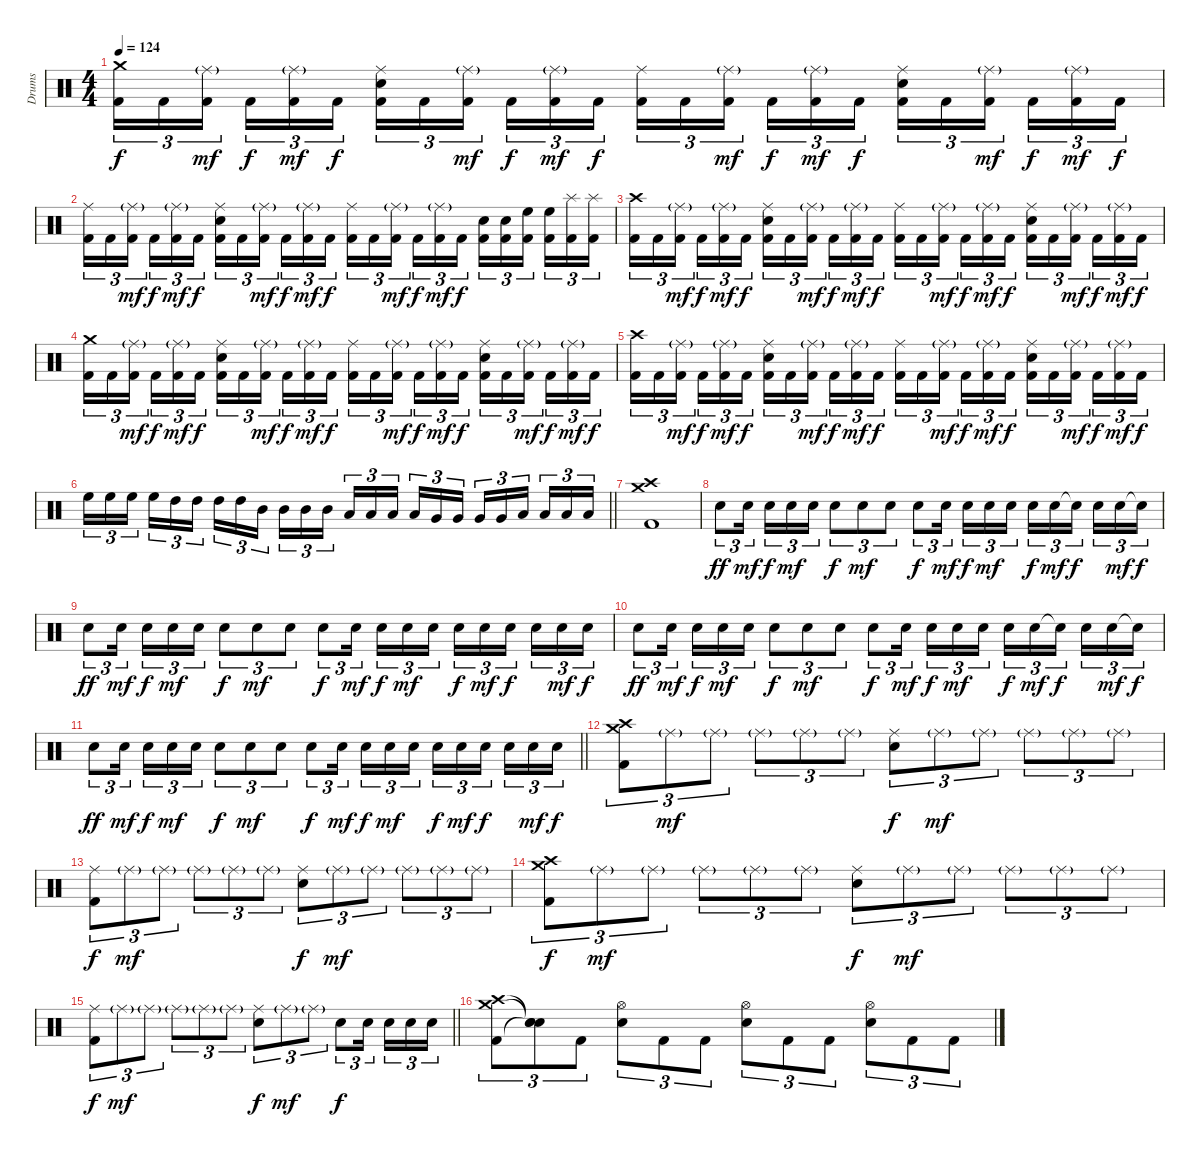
\track ("Drums" "Drums") {instrument percussion}
\staff {score}
\articulation defaults
\ts (4 4)
\tempo 124
\clef neutral
\ks c
("Crash medium (hit)" "Kick (hit) 2").16{tu (3 2) dy f} "Kick (hit) 2".16{tu (3 2)} ("Ride (middle)"{g} "Kick (hit) 2").16{tu (3 2) dy mf} "Kick (hit) 2".16{tu (3 2) dy f} ("Ride (middle)"{g} "Kick (hit) 2").16{tu (3 2) dy mf} "Kick (hit) 2".16{tu (3 2) dy f} ("Ride (middle)" "Electric Snare (hit)" "Kick (hit) 2").16{tu (3 2)} "Kick (hit) 2".16{tu (3 2)} ("Ride (middle)"{g} "Kick (hit) 2").16{tu (3 2) dy mf} "Kick (hit) 2".16{tu (3 2) dy f} ("Ride (middle)"{g} "Kick (hit) 2").16{tu (3 2) dy mf} "Kick (hit) 2".16{tu (3 2) dy f} ("Ride (middle)" "Kick (hit) 2").16{tu (3 2)} "Kick (hit) 2".16{tu (3 2)} ("Ride (middle)"{g} "Kick (hit) 2").16{tu (3 2) dy mf} "Kick (hit) 2".16{tu (3 2) dy f} ("Ride (middle)"{g} "Kick (hit) 2").16{tu (3 2) dy mf} "Kick (hit) 2".16{tu (3 2) dy f} ("Ride (middle)" "Electric Snare (hit)" "Kick (hit) 2").16{tu (3 2)} "Kick (hit) 2".16{tu (3 2)} ("Ride (middle)"{g} "Kick (hit) 2").16{tu (3 2) dy mf} "Kick (hit) 2".16{tu (3 2) dy f} ("Ride (middle)"{g} "Kick (hit) 2").16{tu (3 2) dy mf} "Kick (hit) 2".16{tu (3 2) dy f} |
("Ride (middle)" "Kick (hit) 2").16{tu (3 2)} "Kick (hit) 2".16{tu (3 2)} ("Ride (middle)"{g} "Kick (hit) 2").16{tu (3 2) dy mf} "Kick (hit) 2".16{tu (3 2) dy f} ("Ride (middle)"{g} "Kick (hit) 2").16{tu (3 2) dy mf} "Kick (hit) 2".16{tu (3 2) dy f} ("Ride (middle)" "Electric Snare (hit)" "Kick (hit) 2").16{tu (3 2)} "Kick (hit) 2".16{tu (3 2)} ("Ride (middle)"{g} "Kick (hit) 2").16{tu (3 2) dy mf} "Kick (hit) 2".16{tu (3 2) dy f} ("Ride (middle)"{g} "Kick (hit) 2").16{tu (3 2) dy mf} "Kick (hit) 2".16{tu (3 2) dy f} ("Ride (middle)" "Kick (hit) 2").16{tu (3 2)} "Kick (hit) 2".16{tu (3 2)} ("Ride (middle)"{g} "Kick (hit) 2").16{tu (3 2) dy mf} "Kick (hit) 2".16{tu (3 2) dy f} ("Ride (middle)"{g} "Kick (hit) 2").16{tu (3 2) dy mf} "Kick (hit) 2".16{tu (3 2) dy f} ("Electric Snare (hit)" "Kick (hit) 2").16{tu (3 2)} ("Electric Snare (hit)" "Kick (hit) 2").16{tu (3 2)} ("High Floor Tom (hit)" "Kick (hit) 2").16{tu (3 2)} ("High Floor Tom (hit)" "Kick (hit) 2").16{tu (3 2)} ("Splash (hit)" "Kick (hit) 2").16{tu (3 2)} ("Splash (hit)" "Kick (hit) 2").16{tu (3 2)} |
("Crash high (hit)" "Kick (hit) 2").16{tu (3 2)} "Kick (hit) 2".16{tu (3 2)} ("Ride (middle)"{g} "Kick (hit) 2").16{tu (3 2) dy mf} "Kick (hit) 2".16{tu (3 2) dy f} ("Ride (middle)"{g} "Kick (hit) 2").16{tu (3 2) dy mf} "Kick (hit) 2".16{tu (3 2) dy f} ("Ride (middle)" "Electric Snare (hit)" "Kick (hit) 2").16{tu (3 2)} "Kick (hit) 2".16{tu (3 2)} ("Ride (middle)"{g} "Kick (hit) 2").16{tu (3 2) dy mf} "Kick (hit) 2".16{tu (3 2) dy f} ("Ride (middle)"{g} "Kick (hit) 2").16{tu (3 2) dy mf} "Kick (hit) 2".16{tu (3 2) dy f} ("Ride (middle)" "Kick (hit) 2").16{tu (3 2)} "Kick (hit) 2".16{tu (3 2)} ("Ride (middle)"{g} "Kick (hit) 2").16{tu (3 2) dy mf} "Kick (hit) 2".16{tu (3 2) dy f} ("Ride (middle)"{g} "Kick (hit) 2").16{tu (3 2) dy mf} "Kick (hit) 2".16{tu (3 2) dy f} ("Ride (middle)" "Electric Snare (hit)" "Kick (hit) 2").16{tu (3 2)} "Kick (hit) 2".16{tu (3 2)} ("Ride (middle)"{g} "Kick (hit) 2").16{tu (3 2) dy mf} "Kick (hit) 2".16{tu (3 2) dy f} ("Ride (middle)"{g} "Kick (hit) 2").16{tu (3 2) dy mf} "Kick (hit) 2".16{tu (3 2) dy f} |
("Crash medium (hit)" "Kick (hit) 2").16{tu (3 2)} "Kick (hit) 2".16{tu (3 2)} ("Ride (middle)"{g} "Kick (hit) 2").16{tu (3 2) dy mf} "Kick (hit) 2".16{tu (3 2) dy f} ("Ride (middle)"{g} "Kick (hit) 2").16{tu (3 2) dy mf} "Kick (hit) 2".16{tu (3 2) dy f} ("Ride (middle)" "Electric Snare (hit)" "Kick (hit) 2").16{tu (3 2)} "Kick (hit) 2".16{tu (3 2)} ("Ride (middle)"{g} "Kick (hit) 2").16{tu (3 2) dy mf} "Kick (hit) 2".16{tu (3 2) dy f} ("Ride (middle)"{g} "Kick (hit) 2").16{tu (3 2) dy mf} "Kick (hit) 2".16{tu (3 2) dy f} ("Ride (middle)" "Kick (hit) 2").16{tu (3 2)} "Kick (hit) 2".16{tu (3 2)} ("Ride (middle)"{g} "Kick (hit) 2").16{tu (3 2) dy mf} "Kick (hit) 2".16{tu (3 2) dy f} ("Ride (middle)"{g} "Kick (hit) 2").16{tu (3 2) dy mf} "Kick (hit) 2".16{tu (3 2) dy f} ("Ride (middle)" "Electric Snare (hit)" "Kick (hit) 2").16{tu (3 2)} "Kick (hit) 2".16{tu (3 2)} ("Ride (middle)"{g} "Kick (hit) 2").16{tu (3 2) dy mf} "Kick (hit) 2".16{tu (3 2) dy f} ("Ride (middle)"{g} "Kick (hit) 2").16{tu (3 2) dy mf} "Kick (hit) 2".16{tu (3 2) dy f} |
("Crash high (hit)" "Kick (hit) 2").16{tu (3 2)} "Kick (hit) 2".16{tu (3 2)} ("Ride (middle)"{g} "Kick (hit) 2").16{tu (3 2) dy mf} "Kick (hit) 2".16{tu (3 2) dy f} ("Ride (middle)"{g} "Kick (hit) 2").16{tu (3 2) dy mf} "Kick (hit) 2".16{tu (3 2) dy f} ("Ride (middle)" "Electric Snare (hit)" "Kick (hit) 2").16{tu (3 2)} "Kick (hit) 2".16{tu (3 2)} ("Ride (middle)"{g} "Kick (hit) 2").16{tu (3 2) dy mf} "Kick (hit) 2".16{tu (3 2) dy f} ("Ride (middle)"{g} "Kick (hit) 2").16{tu (3 2) dy mf} "Kick (hit) 2".16{tu (3 2) dy f} ("Ride (middle)" "Kick (hit) 2").16{tu (3 2)} "Kick (hit) 2".16{tu (3 2)} ("Ride (middle)"{g} "Kick (hit) 2").16{tu (3 2) dy mf} "Kick (hit) 2".16{tu (3 2) dy f} ("Ride (middle)"{g} "Kick (hit) 2").16{tu (3 2) dy mf} "Kick (hit) 2".16{tu (3 2) dy f} ("Ride (middle)" "Electric Snare (hit)" "Kick (hit) 2").16{tu (3 2)} "Kick (hit) 2".16{tu (3 2)} ("Ride (middle)"{g} "Kick (hit) 2").16{tu (3 2) dy mf} "Kick (hit) 2".16{tu (3 2) dy f} ("Ride (middle)"{g} "Kick (hit) 2").16{tu (3 2) dy mf} "Kick (hit) 2".16{tu (3 2) dy f} |
\barLineRight lightlight "High Floor Tom (hit)".16{tu (3 2)} "High Floor Tom (hit)".16{tu (3 2)} "High Floor Tom (hit)".16{tu (3 2)} "High Floor Tom (hit)".16{tu (3 2)} "High Tom (hit)".16{tu (3 2)} "High Tom (hit)".16{tu (3 2)} "High Tom (hit)".16{tu (3 2)} "High Tom (hit)".16{tu (3 2)} "Mid Tom (hit)".16{tu (3 2)} "Mid Tom (hit)".16{tu (3 2)} "Mid Tom (hit)".16{tu (3 2)} "Mid Tom (hit)".16{tu (3 2)} "Low Tom (hit)".16{tu (3 2)} "Low Tom (hit)".16{tu (3 2)} "Low Tom (hit)".16{tu (3 2)} "Low Tom (hit)".16{tu (3 2)} "Very Low Tom (hit)".16{tu (3 2)} "Very Low Tom (hit)".16{tu (3 2)} "Very Low Tom (hit)".16{tu (3 2)} "Very Low Tom (hit)".16{tu (3 2)} "Low Floor Tom (hit)".16{tu (3 2)} "Low Floor Tom (hit)".16{tu (3 2)} "Low Floor Tom (hit)".16{tu (3 2)} "Low Floor Tom (hit)".16{tu (3 2)}
|
("Crash high (hit)" "Crash medium (hit)" "Kick (hit) 2").1 |
"Electric Snare (hit)".8{tu (3 2) dy ff} "Electric Snare (hit)".16{tu (3 2) dy mf} "Electric Snare (hit)".16{tu (3 2) dy f} "Electric Snare (hit)".16{tu (3 2) dy mf} "Electric Snare (hit)".16{tu (3 2)} "Electric Snare (hit)".8{tu (3 2) dy f} "Electric Snare (hit)".8{tu (3 2) dy mf} "Electric Snare (hit)".8{tu (3 2)} "Electric Snare (hit)".8{tu (3 2) dy f} "Electric Snare (hit)".16{tu (3 2) dy mf} "Electric Snare (hit)".16{tu (3 2) dy f} "Electric Snare (hit)".16{tu (3 2) dy mf} "Electric Snare (hit)".16{tu (3 2)} "Electric Snare (hit)".16{tu (3 2) dy f} "Electric Snare (hit)".16{tu (3 2) dy mf} "Snare (hit)"{t}.16{tu (3 2) dy f} "Electric Snare (hit)".16{tu (3 2)} "Electric Snare (hit)".16{tu (3 2) dy mf} "Snare (hit)"{t}.16{tu (3 2) dy f} |
"Electric Snare (hit)".8{tu (3 2) dy ff} "Electric Snare (hit)".16{tu (3 2) dy mf} "Electric Snare (hit)".16{tu (3 2) dy f} "Electric Snare (hit)".16{tu (3 2) dy mf} "Electric Snare (hit)".16{tu (3 2)} "Electric Snare (hit)".8{tu (3 2) dy f} "Electric Snare (hit)".8{tu (3 2) dy mf} "Electric Snare (hit)".8{tu (3 2)} "Electric Snare (hit)".8{tu (3 2) dy f} "Electric Snare (hit)".16{tu (3 2) dy mf} "Electric Snare (hit)".16{tu (3 2) dy f} "Electric Snare (hit)".16{tu (3 2) dy mf} "Electric Snare (hit)".16{tu (3 2)} "Electric Snare (hit)".16{tu (3 2) dy f} "Electric Snare (hit)".16{tu (3 2) dy mf} "Electric Snare (hit)".16{tu (3 2) dy f} "Electric Snare (hit)".16{tu (3 2)} "Electric Snare (hit)".16{tu (3 2) dy mf} "Electric Snare (hit)".16{tu (3 2) dy f} |
"Electric Snare (hit)".8{tu (3 2) dy ff} "Electric Snare (hit)".16{tu (3 2) dy mf} "Electric Snare (hit)".16{tu (3 2) dy f} "Electric Snare (hit)".16{tu (3 2) dy mf} "Electric Snare (hit)".16{tu (3 2)} "Electric Snare (hit)".8{tu (3 2) dy f} "Electric Snare (hit)".8{tu (3 2) dy mf} "Electric Snare (hit)".8{tu (3 2)} "Electric Snare (hit)".8{tu (3 2) dy f} "Electric Snare (hit)".16{tu (3 2) dy mf} "Electric Snare (hit)".16{tu (3 2) dy f} "Electric Snare (hit)".16{tu (3 2) dy mf} "Electric Snare (hit)".16{tu (3 2)} "Electric Snare (hit)".16{tu (3 2) dy f} "Electric Snare (hit)".16{tu (3 2) dy mf} "Snare (hit)"{t}.16{tu (3 2) dy f} "Electric Snare (hit)".16{tu (3 2)} "Electric Snare (hit)".16{tu (3 2) dy mf} "Snare (hit)"{t}.16{tu (3 2) dy f} |
\barLineRight lightlight "Electric Snare (hit)".8{tu (3 2) dy ff} "Electric Snare (hit)".16{tu (3 2) dy mf} "Electric Snare (hit)".16{tu (3 2) dy f} "Electric Snare (hit)".16{tu (3 2) dy mf} "Electric Snare (hit)".16{tu (3 2)} "Electric Snare (hit)".8{tu (3 2) dy f} "Electric Snare (hit)".8{tu (3 2) dy mf} "Electric Snare (hit)".8{tu (3 2)} "Electric Snare (hit)".8{tu (3 2) dy f} "Electric Snare (hit)".16{tu (3 2) dy mf} "Electric Snare (hit)".16{tu (3 2) dy f} "Electric Snare (hit)".16{tu (3 2) dy mf} "Electric Snare (hit)".16{tu (3 2)} "Electric Snare (hit)".16{tu (3 2) dy f} "Electric Snare (hit)".16{tu (3 2) dy mf} "Electric Snare (hit)".16{tu (3 2) dy f} "Electric Snare (hit)".16{tu (3 2)} "Electric Snare (hit)".16{tu (3 2) dy mf} "Electric Snare (hit)".16{tu (3 2) dy f}
|
("Crash high (hit)" "Crash medium (hit)" "Kick (hit) 2").8{tu (3 2)} "Ride (middle)"{g}.8{tu (3 2) dy mf} "Ride (middle)"{g}.8{tu (3 2)} "Ride (middle)"{g}.8{tu (3 2)} "Ride (middle)"{g}.8{tu (3 2)} "Ride (middle)"{g}.8{tu (3 2)} ("Ride (middle)" "Electric Snare (hit)").8{tu (3 2) dy f} "Ride (middle)"{g}.8{tu (3 2) dy mf} "Ride (middle)"{g}.8{tu (3 2)} "Ride (middle)"{g}.8{tu (3 2)} "Ride (middle)"{g}.8{tu (3 2)} "Ride (middle)"{g}.8{tu (3 2)} |
("Ride (middle)" "Kick (hit) 2").8{tu (3 2) dy f} "Ride (middle)"{g}.8{tu (3 2) dy mf} "Ride (middle)"{g}.8{tu (3 2)} "Ride (middle)"{g}.8{tu (3 2)} "Ride (middle)"{g}.8{tu (3 2)} "Ride (middle)"{g}.8{tu (3 2)} ("Ride (middle)" "Electric Snare (hit)").8{tu (3 2) dy f} "Ride (middle)"{g}.8{tu (3 2) dy mf} "Ride (middle)"{g}.8{tu (3 2)} "Ride (middle)"{g}.8{tu (3 2)} "Ride (middle)"{g}.8{tu (3 2)} "Ride (middle)"{g}.8{tu (3 2)} |
("Crash high (hit)" "Crash medium (hit)" "Kick (hit) 2").8{tu (3 2) dy f} "Ride (middle)"{g}.8{tu (3 2) dy mf} "Ride (middle)"{g}.8{tu (3 2)} "Ride (middle)"{g}.8{tu (3 2)} "Ride (middle)"{g}.8{tu (3 2)} "Ride (middle)"{g}.8{tu (3 2)} ("Ride (middle)" "Electric Snare (hit)").8{tu (3 2) dy f} "Ride (middle)"{g}.8{tu (3 2) dy mf} "Ride (middle)"{g}.8{tu (3 2)} "Ride (middle)"{g}.8{tu (3 2)} "Ride (middle)"{g}.8{tu (3 2)} "Ride (middle)"{g}.8{tu (3 2)} |
\barLineRight lightlight
("Ride (middle)" "Kick (hit) 2").8{tu (3 2) dy f} "Ride (middle)"{g}.8{tu (3 2) dy mf} "Ride (middle)"{g}.8{tu (3 2)} "Ride (middle)"{g}.8{tu (3 2)} "Ride (middle)"{g}.8{tu (3 2)} "Ride (middle)"{g}.8{tu (3 2)} ("Ride (middle)" "Electric Snare (hit)").8{tu (3 2) dy f} "Ride (middle)"{g}.8{tu (3 2) dy mf} "Ride (middle)"{g}.8{tu (3 2)} "Electric Snare (hit)".8{tu (3 2) dy f} "Electric Snare (hit)".16{tu (3 2)} "Electric Snare (hit)".16{tu (3 2)} "Electric Snare (hit)".16{tu (3 2)} "Electric Snare (hit)".16{tu (3 2)} |
("Crash high (hit)" "Crash medium (hit)" "Kick (hit) 2").8{tu (3 2)} ("Snare (hit)"{t} "Snare (hit)"{t} "Snare (hit)"{t}).8{tu (3 2)} "Kick (hit) 2".8{tu (3 2)} ("Hi-Hat (open)" "Electric Snare (hit)").8{tu (3 2)} "Kick (hit) 2".8{tu (3 2)} "Kick (hit) 2".8{tu (3 2)} ("Hi-Hat (open)" "Electric Snare (hit)").8{tu (3 2)} "Kick (hit) 2".8{tu (3 2)} "Kick (hit) 2".8{tu (3 2)} ("Hi-Hat (open)" "Electric Snare (hit)").8{tu (3 2)} "Kick (hit) 2".8{tu (3 2)} "Kick (hit) 2".8{tu (3 2)}
